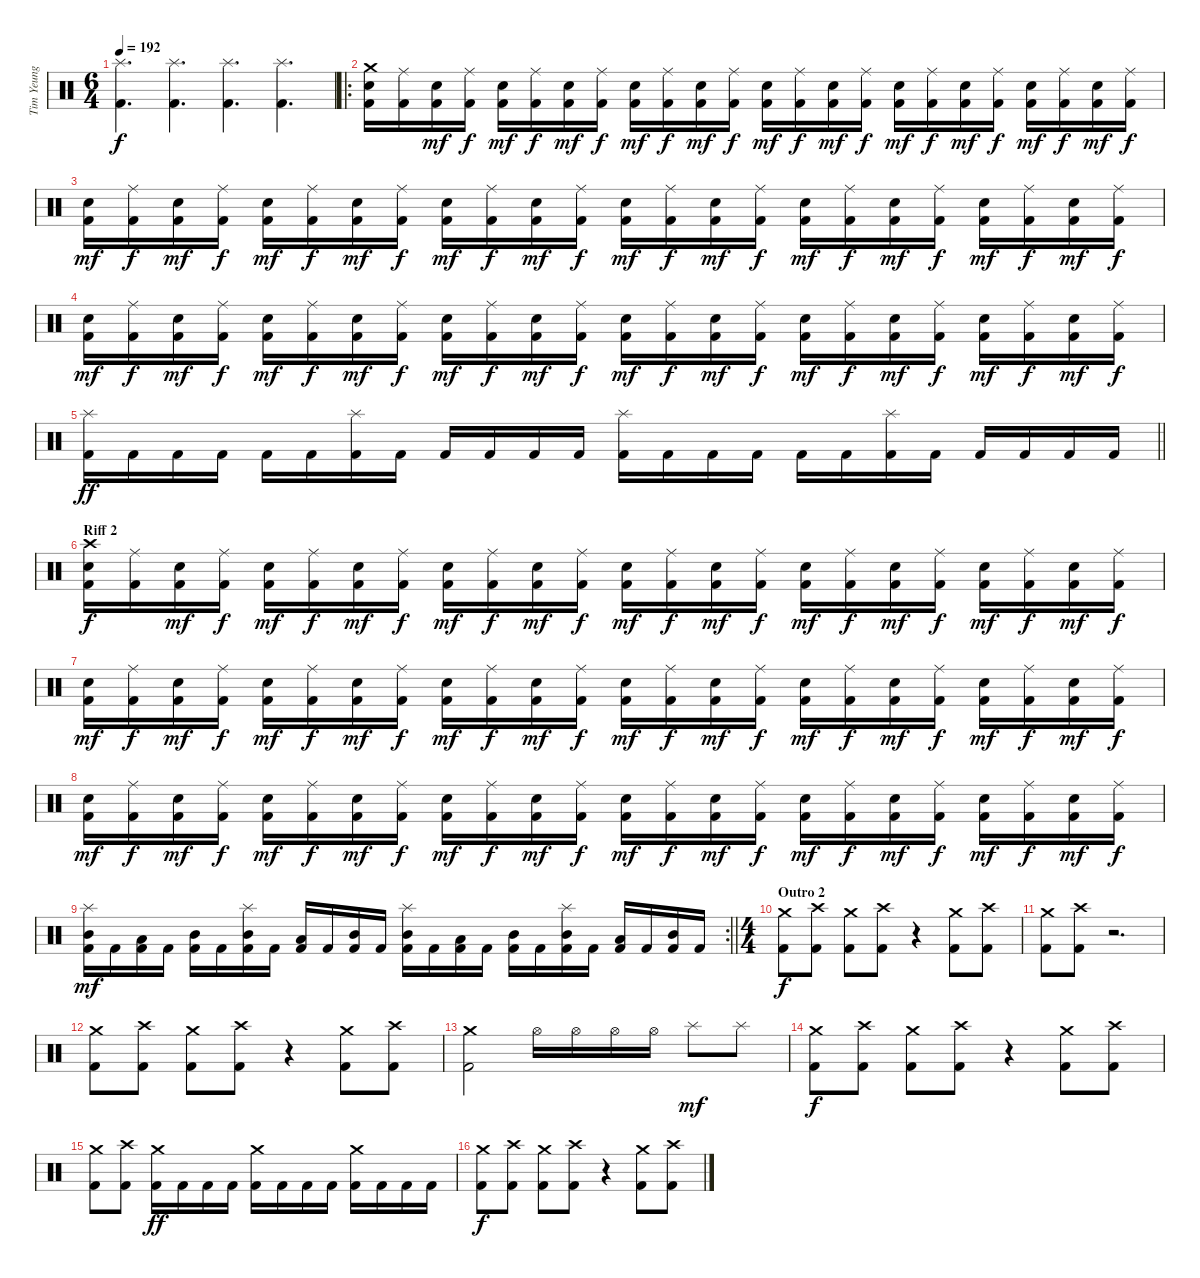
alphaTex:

\track ("Tim Yeung" "Tim Yeung") {instrument percussion}
\staff {score}
\articulation defaults
\ts (6 4)
\tempo 192
\clef neutral
\ks c
("Splash (hit)" "Kick (hit) 2").4{d dy f} ("Splash (hit)" "Kick (hit) 2").4{d} ("Splash (hit)" "Kick (hit) 2").4{d} ("Splash (hit)" "Kick (hit) 2").4{d} |
\ro
("Crash medium (hit)" "Snare (hit) 2" "Kick (hit) 2").16 ("Ride (middle)" "Kick (hit) 2").16 ("Snare (hit) 2" "Kick (hit) 2").16{dy mf} ("Ride (middle)" "Kick (hit) 2").16{dy f} ("Snare (hit) 2" "Kick (hit) 2").16{dy mf} ("Ride (middle)" "Kick (hit) 2").16{dy f} ("Snare (hit) 2" "Kick (hit) 2").16{dy mf} ("Ride (middle)" "Kick (hit) 2").16{dy f} ("Snare (hit) 2" "Kick (hit) 2").16{dy mf} ("Ride (middle)" "Kick (hit) 2").16{dy f} ("Snare (hit) 2" "Kick (hit) 2").16{dy mf} ("Ride (middle)" "Kick (hit) 2").16{dy f} ("Snare (hit) 2" "Kick (hit) 2").16{dy mf} ("Ride (middle)" "Kick (hit) 2").16{dy f} ("Snare (hit) 2" "Kick (hit) 2").16{dy mf} ("Ride (middle)" "Kick (hit) 2").16{dy f} ("Snare (hit) 2" "Kick (hit) 2").16{dy mf} ("Ride (middle)" "Kick (hit) 2").16{dy f} ("Snare (hit) 2" "Kick (hit) 2").16{dy mf} ("Ride (middle)" "Kick (hit) 2").16{dy f} ("Snare (hit) 2" "Kick (hit) 2").16{dy mf} ("Ride (middle)" "Kick (hit) 2").16{dy f} ("Snare (hit) 2" "Kick (hit) 2").16{dy mf} ("Ride (middle)" "Kick (hit) 2").16{dy f} |
("Snare (hit) 2" "Kick (hit) 2").16{dy mf} ("Ride (middle)" "Kick (hit) 2").16{dy f} ("Snare (hit) 2" "Kick (hit) 2").16{dy mf} ("Ride (middle)" "Kick (hit) 2").16{dy f} ("Snare (hit) 2" "Kick (hit) 2").16{dy mf} ("Ride (middle)" "Kick (hit) 2").16{dy f} ("Snare (hit) 2" "Kick (hit) 2").16{dy mf} ("Ride (middle)" "Kick (hit) 2").16{dy f} ("Snare (hit) 2" "Kick (hit) 2").16{dy mf} ("Ride (middle)" "Kick (hit) 2").16{dy f} ("Snare (hit) 2" "Kick (hit) 2").16{dy mf} ("Ride (middle)" "Kick (hit) 2").16{dy f} ("Snare (hit) 2" "Kick (hit) 2").16{dy mf} ("Ride (middle)" "Kick (hit) 2").16{dy f} ("Snare (hit) 2" "Kick (hit) 2").16{dy mf} ("Ride (middle)" "Kick (hit) 2").16{dy f} ("Snare (hit) 2" "Kick (hit) 2").16{dy mf} ("Ride (middle)" "Kick (hit) 2").16{dy f} ("Snare (hit) 2" "Kick (hit) 2").16{dy mf} ("Ride (middle)" "Kick (hit) 2").16{dy f} ("Snare (hit) 2" "Kick (hit) 2").16{dy mf} ("Ride (middle)" "Kick (hit) 2").16{dy f} ("Snare (hit) 2" "Kick (hit) 2").16{dy mf} ("Ride (middle)" "Kick (hit) 2").16{dy f} |
("Snare (hit) 2" "Kick (hit) 2").16{dy mf} ("Ride (middle)" "Kick (hit) 2").16{dy f} ("Snare (hit) 2" "Kick (hit) 2").16{dy mf} ("Ride (middle)" "Kick (hit) 2").16{dy f} ("Snare (hit) 2" "Kick (hit) 2").16{dy mf} ("Ride (middle)" "Kick (hit) 2").16{dy f} ("Snare (hit) 2" "Kick (hit) 2").16{dy mf} ("Ride (middle)" "Kick (hit) 2").16{dy f} ("Snare (hit) 2" "Kick (hit) 2").16{dy mf} ("Ride (middle)" "Kick (hit) 2").16{dy f} ("Snare (hit) 2" "Kick (hit) 2").16{dy mf} ("Ride (middle)" "Kick (hit) 2").16{dy f} ("Snare (hit) 2" "Kick (hit) 2").16{dy mf} ("Ride (middle)" "Kick (hit) 2").16{dy f} ("Snare (hit) 2" "Kick (hit) 2").16{dy mf} ("Ride (middle)" "Kick (hit) 2").16{dy f} ("Snare (hit) 2" "Kick (hit) 2").16{dy mf} ("Ride (middle)" "Kick (hit) 2").16{dy f} ("Snare (hit) 2" "Kick (hit) 2").16{dy mf} ("Ride (middle)" "Kick (hit) 2").16{dy f} ("Snare (hit) 2" "Kick (hit) 2").16{dy mf} ("Ride (middle)" "Kick (hit) 2").16{dy f} ("Snare (hit) 2" "Kick (hit) 2").16{dy mf} ("Ride (middle)" "Kick (hit) 2").16{dy f} |
\barLineRight lightlight
("Splash (hit)" "Kick (hit) 2").16{dy ff} "Kick (hit) 2".16 "Kick (hit) 2".16 "Kick (hit) 2".16 "Kick (hit) 2".16 "Kick (hit) 2".16 ("Splash (hit)" "Kick (hit) 2").16 "Kick (hit) 2".16 "Kick (hit) 2".16 "Kick (hit) 2".16 "Kick (hit) 2".16 "Kick (hit) 2".16 ("Splash (hit)" "Kick (hit) 2").16 "Kick (hit) 2".16 "Kick (hit) 2".16 "Kick (hit) 2".16 "Kick (hit) 2".16 "Kick (hit) 2".16 ("Splash (hit)" "Kick (hit) 2").16 "Kick (hit) 2".16 "Kick (hit) 2".16 "Kick (hit) 2".16 "Kick (hit) 2".16 "Kick (hit) 2".16 |
\section ("" "Riff 2")
("Crash high (hit)" "Snare (hit) 2" "Kick (hit) 2").16{dy f} ("Ride (middle)" "Kick (hit) 2").16 ("Snare (hit) 2" "Kick (hit) 2").16{dy mf} ("Ride (middle)" "Kick (hit) 2").16{dy f} ("Snare (hit) 2" "Kick (hit) 2").16{dy mf} ("Ride (middle)" "Kick (hit) 2").16{dy f} ("Snare (hit) 2" "Kick (hit) 2").16{dy mf} ("Ride (middle)" "Kick (hit) 2").16{dy f} ("Snare (hit) 2" "Kick (hit) 2").16{dy mf} ("Ride (middle)" "Kick (hit) 2").16{dy f} ("Snare (hit) 2" "Kick (hit) 2").16{dy mf} ("Ride (middle)" "Kick (hit) 2").16{dy f} ("Snare (hit) 2" "Kick (hit) 2").16{dy mf} ("Ride (middle)" "Kick (hit) 2").16{dy f} ("Snare (hit) 2" "Kick (hit) 2").16{dy mf} ("Ride (middle)" "Kick (hit) 2").16{dy f} ("Snare (hit) 2" "Kick (hit) 2").16{dy mf} ("Ride (middle)" "Kick (hit) 2").16{dy f} ("Snare (hit) 2" "Kick (hit) 2").16{dy mf} ("Ride (middle)" "Kick (hit) 2").16{dy f} ("Snare (hit) 2" "Kick (hit) 2").16{dy mf} ("Ride (middle)" "Kick (hit) 2").16{dy f} ("Snare (hit) 2" "Kick (hit) 2").16{dy mf} ("Ride (middle)" "Kick (hit) 2").16{dy f} |
("Snare (hit) 2" "Kick (hit) 2").16{dy mf} ("Ride (middle)" "Kick (hit) 2").16{dy f} ("Snare (hit) 2" "Kick (hit) 2").16{dy mf} ("Ride (middle)" "Kick (hit) 2").16{dy f} ("Snare (hit) 2" "Kick (hit) 2").16{dy mf} ("Ride (middle)" "Kick (hit) 2").16{dy f} ("Snare (hit) 2" "Kick (hit) 2").16{dy mf} ("Ride (middle)" "Kick (hit) 2").16{dy f} ("Snare (hit) 2" "Kick (hit) 2").16{dy mf} ("Ride (middle)" "Kick (hit) 2").16{dy f} ("Snare (hit) 2" "Kick (hit) 2").16{dy mf} ("Ride (middle)" "Kick (hit) 2").16{dy f} ("Snare (hit) 2" "Kick (hit) 2").16{dy mf} ("Ride (middle)" "Kick (hit) 2").16{dy f} ("Snare (hit) 2" "Kick (hit) 2").16{dy mf} ("Ride (middle)" "Kick (hit) 2").16{dy f} ("Snare (hit) 2" "Kick (hit) 2").16{dy mf} ("Ride (middle)" "Kick (hit) 2").16{dy f} ("Snare (hit) 2" "Kick (hit) 2").16{dy mf} ("Ride (middle)" "Kick (hit) 2").16{dy f} ("Snare (hit) 2" "Kick (hit) 2").16{dy mf} ("Ride (middle)" "Kick (hit) 2").16{dy f} ("Snare (hit) 2" "Kick (hit) 2").16{dy mf} ("Ride (middle)" "Kick (hit) 2").16{dy f} |
("Snare (hit) 2" "Kick (hit) 2").16{dy mf} ("Ride (middle)" "Kick (hit) 2").16{dy f} ("Snare (hit) 2" "Kick (hit) 2").16{dy mf} ("Ride (middle)" "Kick (hit) 2").16{dy f} ("Snare (hit) 2" "Kick (hit) 2").16{dy mf} ("Ride (middle)" "Kick (hit) 2").16{dy f} ("Snare (hit) 2" "Kick (hit) 2").16{dy mf} ("Ride (middle)" "Kick (hit) 2").16{dy f} ("Snare (hit) 2" "Kick (hit) 2").16{dy mf} ("Ride (middle)" "Kick (hit) 2").16{dy f} ("Snare (hit) 2" "Kick (hit) 2").16{dy mf} ("Ride (middle)" "Kick (hit) 2").16{dy f} ("Snare (hit) 2" "Kick (hit) 2").16{dy mf} ("Ride (middle)" "Kick (hit) 2").16{dy f} ("Snare (hit) 2" "Kick (hit) 2").16{dy mf} ("Ride (middle)" "Kick (hit) 2").16{dy f} ("Snare (hit) 2" "Kick (hit) 2").16{dy mf} ("Ride (middle)" "Kick (hit) 2").16{dy f} ("Snare (hit) 2" "Kick (hit) 2").16{dy mf} ("Ride (middle)" "Kick (hit) 2").16{dy f} ("Snare (hit) 2" "Kick (hit) 2").16{dy mf} ("Ride (middle)" "Kick (hit) 2").16{dy f} ("Snare (hit) 2" "Kick (hit) 2").16{dy mf} ("Ride (middle)" "Kick (hit) 2").16{dy f} |
\rc 2
\barLineRight lightlight
("Splash (hit)" "Mid Tom (hit)" "Kick (hit) 2").16{dy mf} "Kick (hit) 2".16 ("Low Tom (hit)" "Kick (hit) 2").16 "Kick (hit) 2".16 ("Mid Tom (hit)" "Kick (hit) 2").16 "Kick (hit) 2".16 ("Splash (hit)" "Mid Tom (hit)" "Kick (hit) 2").16 "Kick (hit) 2".16 ("Low Tom (hit)" "Kick (hit) 2").16 "Kick (hit) 2".16 ("Mid Tom (hit)" "Kick (hit) 2").16 "Kick (hit) 2".16 ("Splash (hit)" "Mid Tom (hit)" "Kick (hit) 2").16 "Kick (hit) 2".16 ("Low Tom (hit)" "Kick (hit) 2").16 "Kick (hit) 2".16 ("Mid Tom (hit)" "Kick (hit) 2").16 "Kick (hit) 2".16 ("Splash (hit)" "Mid Tom (hit)" "Kick (hit) 2").16 "Kick (hit) 2".16 ("Low Tom (hit)" "Kick (hit) 2").16 "Kick (hit) 2".16 ("Mid Tom (hit)" "Kick (hit) 2").16 "Kick (hit) 2".16 |
\ts (4 4)
\section ("" "Outro 2")
("Crash medium (hit)" "Kick (hit) 2").8{dy f} ("Crash high (hit)" "Kick (hit) 2").8 ("Crash medium (hit)" "Kick (hit) 2").8 ("Crash high (hit)" "Kick (hit) 2").8 r.4 ("Crash medium (hit)" "Kick (hit) 2").8 ("Crash high (hit)" "Kick (hit) 2").8 |
("Crash medium (hit)" "Kick (hit) 2").8 ("Crash high (hit)" "Kick (hit) 2").8 r.2{d} |
("Crash medium (hit)" "Kick (hit) 2").8 ("Crash high (hit)" "Kick (hit) 2").8 ("Crash medium (hit)" "Kick (hit) 2").8 ("Crash high (hit)" "Kick (hit) 2").8 r.4 ("Crash medium (hit)" "Kick (hit) 2").8 ("Crash high (hit)" "Kick (hit) 2").8 |
("Crash medium (hit)" "Kick (hit) 2").2 "Hi-Hat (open)".16 "Hi-Hat (open)".16 "Hi-Hat (open)".16 "Hi-Hat (open)".16 "Splash (hit)".8{dy mf} "Splash (hit)".8 |
("Crash medium (hit)" "Kick (hit) 2").8{dy f} ("Crash high (hit)" "Kick (hit) 2").8 ("Crash medium (hit)" "Kick (hit) 2").8 ("Crash high (hit)" "Kick (hit) 2").8 r.4 ("Crash medium (hit)" "Kick (hit) 2").8 ("Crash high (hit)" "Kick (hit) 2").8 |
("Crash medium (hit)" "Kick (hit) 2").8 ("Crash high (hit)" "Kick (hit) 2").8 ("Crash medium (hit)" "Kick (hit) 2").16{dy ff} "Kick (hit) 2".16 "Kick (hit) 2".16 "Kick (hit) 2".16 ("Crash medium (hit)" "Kick (hit) 2").16 "Kick (hit) 2".16 "Kick (hit) 2".16 "Kick (hit) 2".16 ("Crash medium (hit)" "Kick (hit) 2").16 "Kick (hit) 2".16 "Kick (hit) 2".16 "Kick (hit) 2".16 |
("Crash medium (hit)" "Kick (hit) 2").8{dy f} ("Crash high (hit)" "Kick (hit) 2").8 ("Crash medium (hit)" "Kick (hit) 2").8 ("Crash high (hit)" "Kick (hit) 2").8 r.4 ("Crash medium (hit)" "Kick (hit) 2").8 ("Crash high (hit)" "Kick (hit) 2").8
